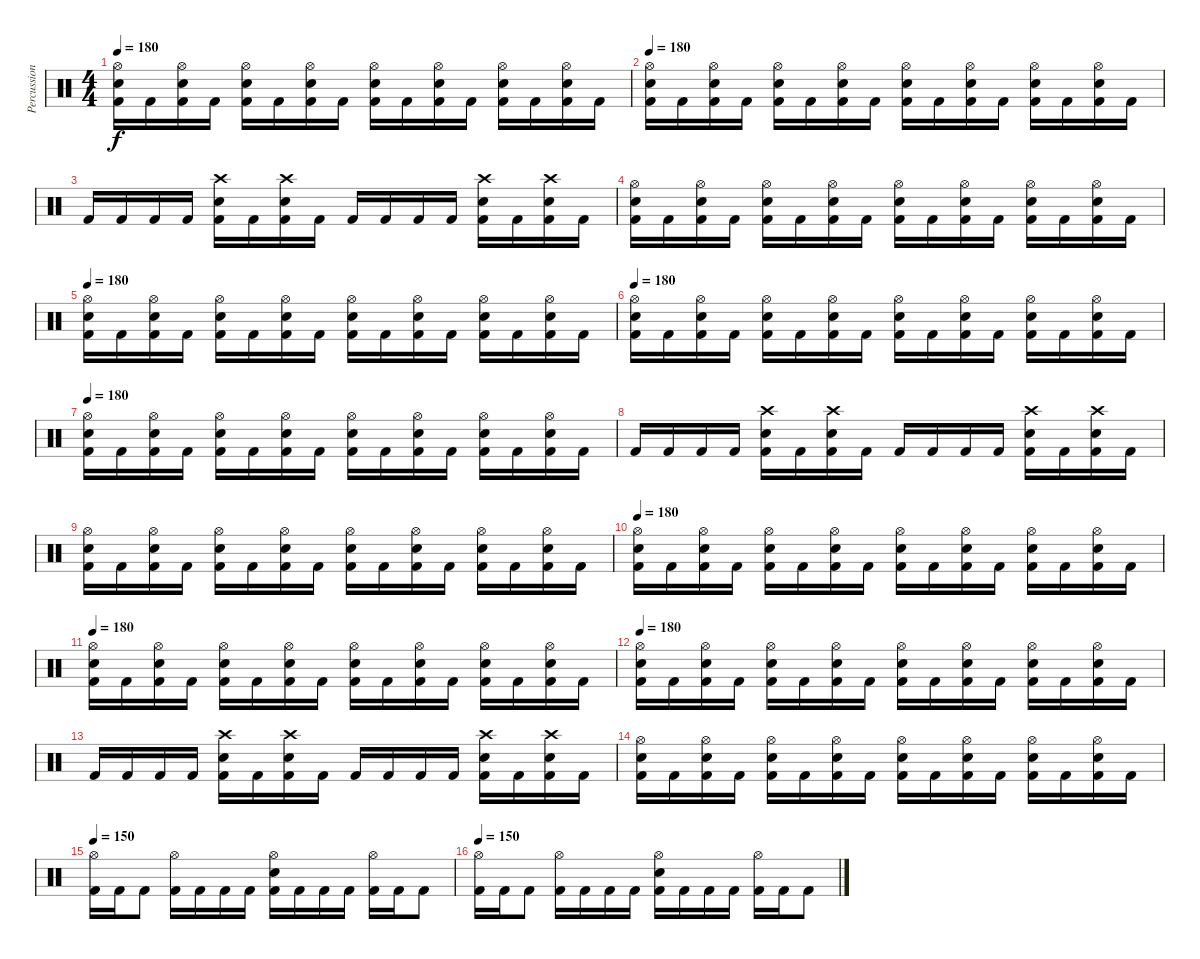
\track ("Percussion" "Percussion") {instrument percussion}
\staff {score}
\articulation defaults
\ts (4 4)
\tempo 180
\clef neutral
\ks c
("Hi-Hat (open)" "Snare (hit) 2" "Kick (hit) 2").16{dy f} "Kick (hit) 2".16 ("Hi-Hat (open)" "Snare (hit) 2" "Kick (hit) 2").16 "Kick (hit) 2".16 ("Hi-Hat (open)" "Snare (hit) 2" "Kick (hit) 2").16 "Kick (hit) 2".16 ("Hi-Hat (open)" "Snare (hit) 2" "Kick (hit) 2").16 "Kick (hit) 2".16 ("Hi-Hat (open)" "Snare (hit) 2" "Kick (hit) 2").16 "Kick (hit) 2".16 ("Hi-Hat (open)" "Snare (hit) 2" "Kick (hit) 2").16 "Kick (hit) 2".16 ("Hi-Hat (open)" "Snare (hit) 2" "Kick (hit) 2").16 "Kick (hit) 2".16 ("Hi-Hat (open)" "Snare (hit) 2" "Kick (hit) 2").16 "Kick (hit) 2".16 |
\tempo 180
("Hi-Hat (open)" "Snare (hit) 2" "Kick (hit) 2").16 "Kick (hit) 2".16 ("Hi-Hat (open)" "Snare (hit) 2" "Kick (hit) 2").16 "Kick (hit) 2".16 ("Hi-Hat (open)" "Snare (hit) 2" "Kick (hit) 2").16 "Kick (hit) 2".16 ("Hi-Hat (open)" "Snare (hit) 2" "Kick (hit) 2").16 "Kick (hit) 2".16 ("Hi-Hat (open)" "Snare (hit) 2" "Kick (hit) 2").16 "Kick (hit) 2".16 ("Hi-Hat (open)" "Snare (hit) 2" "Kick (hit) 2").16 "Kick (hit) 2".16 ("Hi-Hat (open)" "Snare (hit) 2" "Kick (hit) 2").16 "Kick (hit) 2".16 ("Hi-Hat (open)" "Snare (hit) 2" "Kick (hit) 2").16 "Kick (hit) 2".16 |
"Kick (hit) 2".16 "Kick (hit) 2".16 "Kick (hit) 2".16 "Kick (hit) 2".16 ("Crash high (hit)" "Snare (hit) 2" "Kick (hit) 2").16 "Kick (hit) 2".16 ("Crash high (hit)" "Snare (hit) 2" "Kick (hit) 2").16 "Kick (hit) 2".16 "Kick (hit) 2".16 "Kick (hit) 2".16 "Kick (hit) 2".16 "Kick (hit) 2".16 ("Crash high (hit)" "Snare (hit) 2" "Kick (hit) 2").16 "Kick (hit) 2".16 ("Crash high (hit)" "Snare (hit) 2" "Kick (hit) 2").16 "Kick (hit) 2".16 |
("Hi-Hat (open)" "Snare (hit) 2" "Kick (hit) 2").16 "Kick (hit) 2".16 ("Hi-Hat (open)" "Snare (hit) 2" "Kick (hit) 2").16 "Kick (hit) 2".16 ("Hi-Hat (open)" "Snare (hit) 2" "Kick (hit) 2").16 "Kick (hit) 2".16 ("Hi-Hat (open)" "Snare (hit) 2" "Kick (hit) 2").16 "Kick (hit) 2".16 ("Hi-Hat (open)" "Snare (hit) 2" "Kick (hit) 2").16 "Kick (hit) 2".16 ("Hi-Hat (open)" "Snare (hit) 2" "Kick (hit) 2").16 "Kick (hit) 2".16 ("Hi-Hat (open)" "Snare (hit) 2" "Kick (hit) 2").16 "Kick (hit) 2".16 ("Hi-Hat (open)" "Snare (hit) 2" "Kick (hit) 2").16 "Kick (hit) 2".16 |
\tempo 180
("Hi-Hat (open)" "Snare (hit) 2" "Kick (hit) 2").16 "Kick (hit) 2".16 ("Hi-Hat (open)" "Snare (hit) 2" "Kick (hit) 2").16 "Kick (hit) 2".16 ("Hi-Hat (open)" "Snare (hit) 2" "Kick (hit) 2").16 "Kick (hit) 2".16 ("Hi-Hat (open)" "Snare (hit) 2" "Kick (hit) 2").16 "Kick (hit) 2".16 ("Hi-Hat (open)" "Snare (hit) 2" "Kick (hit) 2").16 "Kick (hit) 2".16 ("Hi-Hat (open)" "Snare (hit) 2" "Kick (hit) 2").16 "Kick (hit) 2".16 ("Hi-Hat (open)" "Snare (hit) 2" "Kick (hit) 2").16 "Kick (hit) 2".16 ("Hi-Hat (open)" "Snare (hit) 2" "Kick (hit) 2").16 "Kick (hit) 2".16 |
\tempo 180
("Hi-Hat (open)" "Snare (hit) 2" "Kick (hit) 2").16 "Kick (hit) 2".16 ("Hi-Hat (open)" "Snare (hit) 2" "Kick (hit) 2").16 "Kick (hit) 2".16 ("Hi-Hat (open)" "Snare (hit) 2" "Kick (hit) 2").16 "Kick (hit) 2".16 ("Hi-Hat (open)" "Snare (hit) 2" "Kick (hit) 2").16 "Kick (hit) 2".16 ("Hi-Hat (open)" "Snare (hit) 2" "Kick (hit) 2").16 "Kick (hit) 2".16 ("Hi-Hat (open)" "Snare (hit) 2" "Kick (hit) 2").16 "Kick (hit) 2".16 ("Hi-Hat (open)" "Snare (hit) 2" "Kick (hit) 2").16 "Kick (hit) 2".16 ("Hi-Hat (open)" "Snare (hit) 2" "Kick (hit) 2").16 "Kick (hit) 2".16 |
\tempo 180
("Hi-Hat (open)" "Snare (hit) 2" "Kick (hit) 2").16 "Kick (hit) 2".16 ("Hi-Hat (open)" "Snare (hit) 2" "Kick (hit) 2").16 "Kick (hit) 2".16 ("Hi-Hat (open)" "Snare (hit) 2" "Kick (hit) 2").16 "Kick (hit) 2".16 ("Hi-Hat (open)" "Snare (hit) 2" "Kick (hit) 2").16 "Kick (hit) 2".16 ("Hi-Hat (open)" "Snare (hit) 2" "Kick (hit) 2").16 "Kick (hit) 2".16 ("Hi-Hat (open)" "Snare (hit) 2" "Kick (hit) 2").16 "Kick (hit) 2".16 ("Hi-Hat (open)" "Snare (hit) 2" "Kick (hit) 2").16 "Kick (hit) 2".16 ("Hi-Hat (open)" "Snare (hit) 2" "Kick (hit) 2").16 "Kick (hit) 2".16 |
"Kick (hit) 2".16 "Kick (hit) 2".16 "Kick (hit) 2".16 "Kick (hit) 2".16 ("Crash high (hit)" "Snare (hit) 2" "Kick (hit) 2").16 "Kick (hit) 2".16 ("Crash high (hit)" "Snare (hit) 2" "Kick (hit) 2").16 "Kick (hit) 2".16 "Kick (hit) 2".16 "Kick (hit) 2".16 "Kick (hit) 2".16 "Kick (hit) 2".16 ("Crash high (hit)" "Snare (hit) 2" "Kick (hit) 2").16 "Kick (hit) 2".16 ("Crash high (hit)" "Snare (hit) 2" "Kick (hit) 2").16 "Kick (hit) 2".16 |
("Hi-Hat (open)" "Snare (hit) 2" "Kick (hit) 2").16 "Kick (hit) 2".16 ("Hi-Hat (open)" "Snare (hit) 2" "Kick (hit) 2").16 "Kick (hit) 2".16 ("Hi-Hat (open)" "Snare (hit) 2" "Kick (hit) 2").16 "Kick (hit) 2".16 ("Hi-Hat (open)" "Snare (hit) 2" "Kick (hit) 2").16 "Kick (hit) 2".16 ("Hi-Hat (open)" "Snare (hit) 2" "Kick (hit) 2").16 "Kick (hit) 2".16 ("Hi-Hat (open)" "Snare (hit) 2" "Kick (hit) 2").16 "Kick (hit) 2".16 ("Hi-Hat (open)" "Snare (hit) 2" "Kick (hit) 2").16 "Kick (hit) 2".16 ("Hi-Hat (open)" "Snare (hit) 2" "Kick (hit) 2").16 "Kick (hit) 2".16 |
\tempo 180
("Hi-Hat (open)" "Snare (hit) 2" "Kick (hit) 2").16 "Kick (hit) 2".16 ("Hi-Hat (open)" "Snare (hit) 2" "Kick (hit) 2").16 "Kick (hit) 2".16 ("Hi-Hat (open)" "Snare (hit) 2" "Kick (hit) 2").16 "Kick (hit) 2".16 ("Hi-Hat (open)" "Snare (hit) 2" "Kick (hit) 2").16 "Kick (hit) 2".16 ("Hi-Hat (open)" "Snare (hit) 2" "Kick (hit) 2").16 "Kick (hit) 2".16 ("Hi-Hat (open)" "Snare (hit) 2" "Kick (hit) 2").16 "Kick (hit) 2".16 ("Hi-Hat (open)" "Snare (hit) 2" "Kick (hit) 2").16 "Kick (hit) 2".16 ("Hi-Hat (open)" "Snare (hit) 2" "Kick (hit) 2").16 "Kick (hit) 2".16 |
\tempo 180
("Hi-Hat (open)" "Snare (hit) 2" "Kick (hit) 2").16 "Kick (hit) 2".16 ("Hi-Hat (open)" "Snare (hit) 2" "Kick (hit) 2").16 "Kick (hit) 2".16 ("Hi-Hat (open)" "Snare (hit) 2" "Kick (hit) 2").16 "Kick (hit) 2".16 ("Hi-Hat (open)" "Snare (hit) 2" "Kick (hit) 2").16 "Kick (hit) 2".16 ("Hi-Hat (open)" "Snare (hit) 2" "Kick (hit) 2").16 "Kick (hit) 2".16 ("Hi-Hat (open)" "Snare (hit) 2" "Kick (hit) 2").16 "Kick (hit) 2".16 ("Hi-Hat (open)" "Snare (hit) 2" "Kick (hit) 2").16 "Kick (hit) 2".16 ("Hi-Hat (open)" "Snare (hit) 2" "Kick (hit) 2").16 "Kick (hit) 2".16 |
\tempo 180
("Hi-Hat (open)" "Snare (hit) 2" "Kick (hit) 2").16 "Kick (hit) 2".16 ("Hi-Hat (open)" "Snare (hit) 2" "Kick (hit) 2").16 "Kick (hit) 2".16 ("Hi-Hat (open)" "Snare (hit) 2" "Kick (hit) 2").16 "Kick (hit) 2".16 ("Hi-Hat (open)" "Snare (hit) 2" "Kick (hit) 2").16 "Kick (hit) 2".16 ("Hi-Hat (open)" "Snare (hit) 2" "Kick (hit) 2").16 "Kick (hit) 2".16 ("Hi-Hat (open)" "Snare (hit) 2" "Kick (hit) 2").16 "Kick (hit) 2".16 ("Hi-Hat (open)" "Snare (hit) 2" "Kick (hit) 2").16 "Kick (hit) 2".16 ("Hi-Hat (open)" "Snare (hit) 2" "Kick (hit) 2").16 "Kick (hit) 2".16 |
"Kick (hit) 2".16 "Kick (hit) 2".16 "Kick (hit) 2".16 "Kick (hit) 2".16 ("Crash high (hit)" "Snare (hit) 2" "Kick (hit) 2").16 "Kick (hit) 2".16 ("Crash high (hit)" "Snare (hit) 2" "Kick (hit) 2").16 "Kick (hit) 2".16 "Kick (hit) 2".16 "Kick (hit) 2".16 "Kick (hit) 2".16 "Kick (hit) 2".16 ("Crash high (hit)" "Snare (hit) 2" "Kick (hit) 2").16 "Kick (hit) 2".16 ("Crash high (hit)" "Snare (hit) 2" "Kick (hit) 2").16 "Kick (hit) 2".16 |
("Hi-Hat (open)" "Snare (hit) 2" "Kick (hit) 2").16 "Kick (hit) 2".16 ("Hi-Hat (open)" "Snare (hit) 2" "Kick (hit) 2").16 "Kick (hit) 2".16 ("Hi-Hat (open)" "Snare (hit) 2" "Kick (hit) 2").16 "Kick (hit) 2".16 ("Hi-Hat (open)" "Snare (hit) 2" "Kick (hit) 2").16 "Kick (hit) 2".16 ("Hi-Hat (open)" "Snare (hit) 2" "Kick (hit) 2").16 "Kick (hit) 2".16 ("Hi-Hat (open)" "Snare (hit) 2" "Kick (hit) 2").16 "Kick (hit) 2".16 ("Hi-Hat (open)" "Snare (hit) 2" "Kick (hit) 2").16 "Kick (hit) 2".16 ("Hi-Hat (open)" "Snare (hit) 2" "Kick (hit) 2").16 "Kick (hit) 2".16 |
\tempo 120
\tempo 150
("Hi-Hat (open)" "Kick (hit) 2").16 "Kick (hit) 2".16 "Kick (hit) 2".8 ("Hi-Hat (open)" "Kick (hit) 2").16 "Kick (hit) 2".16 "Kick (hit) 2".16 "Kick (hit) 2".16 ("Hi-Hat (open)" "Snare (hit) 2" "Kick (hit) 2").16 "Kick (hit) 2".16 "Kick (hit) 2".16 "Kick (hit) 2".16 ("Hi-Hat (open)" "Kick (hit) 2").16 "Kick (hit) 2".16 "Kick (hit) 2".8 |
\tempo 150
("Hi-Hat (open)" "Kick (hit) 2").16 "Kick (hit) 2".16 "Kick (hit) 2".8 ("Hi-Hat (open)" "Kick (hit) 2").16 "Kick (hit) 2".16 "Kick (hit) 2".16 "Kick (hit) 2".16 ("Hi-Hat (open)" "Snare (hit) 2" "Kick (hit) 2").16 "Kick (hit) 2".16 "Kick (hit) 2".16 "Kick (hit) 2".16 ("Hi-Hat (open)" "Kick (hit) 2").16 "Kick (hit) 2".16 "Kick (hit) 2".8
